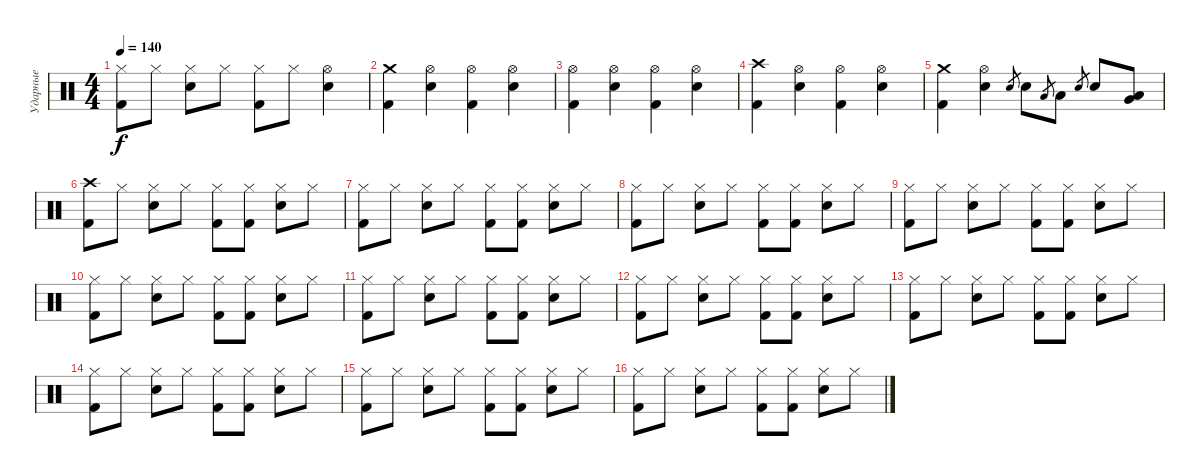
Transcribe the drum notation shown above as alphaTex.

\track ("Ударные" "Ударные") {instrument percussion}
\staff {score}
\articulation defaults
\ts (4 4)
\tempo 140
\clef neutral
\ks c
("Kick (hit) 2" "Hi-Hat (closed)").8{dy f} "Hi-Hat (closed)".8 ("Snare (hit) 2" "Hi-Hat (closed)").8 "Hi-Hat (closed)".8 ("Kick (hit) 2" "Hi-Hat (closed)").8 "Hi-Hat (closed)".8 ("Snare (hit) 2" "Hi-Hat (open)").4 |
("Kick (hit) 2" "Crash medium (hit)").4 ("Snare (hit) 2" "Hi-Hat (open)").4 ("Kick (hit) 2" "Hi-Hat (open)").4 ("Snare (hit) 2" "Hi-Hat (open)").4 |
("Kick (hit) 2" "Hi-Hat (open)").4 ("Snare (hit) 2" "Hi-Hat (open)").4 ("Kick (hit) 2" "Hi-Hat (open)").4 ("Snare (hit) 2" "Hi-Hat (open)").4 |
("Kick (hit) 2" "Crash high (hit)").4 ("Snare (hit) 2" "Hi-Hat (open)").4 ("Kick (hit) 2" "Hi-Hat (open)").4 ("Snare (hit) 2" "Hi-Hat (open)").4 |
("Kick (hit) 2" "Crash medium (hit)").4 ("Snare (hit) 2" "Hi-Hat (open)").4 "Snare (hit) 2".8{gr} "Snare (hit) 2".8 "Low Tom (hit)".8{gr} "Low Tom (hit)".8 "Snare (hit) 2".8{gr} "Snare (hit) 2".8 ("Low Tom (hit)" "Very Low Tom (hit)").8 |
("Kick (hit) 2" "Crash high (hit)").8 "Hi-Hat (closed)".8 ("Snare (hit) 2" "Hi-Hat (closed)").8 "Hi-Hat (closed)".8 ("Kick (hit) 2" "Hi-Hat (closed)").8 ("Kick (hit) 2" "Hi-Hat (closed)").8 ("Snare (hit) 2" "Hi-Hat (closed)").8 "Hi-Hat (closed)".8 |
("Kick (hit) 2" "Hi-Hat (closed)").8 "Hi-Hat (closed)".8 ("Snare (hit) 2" "Hi-Hat (closed)").8 "Hi-Hat (closed)".8 ("Kick (hit) 2" "Hi-Hat (closed)").8 ("Kick (hit) 2" "Hi-Hat (closed)").8 ("Snare (hit) 2" "Hi-Hat (closed)").8 "Hi-Hat (closed)".8 |
("Kick (hit) 2" "Hi-Hat (closed)").8 "Hi-Hat (closed)".8 ("Snare (hit) 2" "Hi-Hat (closed)").8 "Hi-Hat (closed)".8 ("Kick (hit) 2" "Hi-Hat (closed)").8 ("Kick (hit) 2" "Hi-Hat (closed)").8 ("Snare (hit) 2" "Hi-Hat (closed)").8 "Hi-Hat (closed)".8 |
("Kick (hit) 2" "Hi-Hat (closed)").8 "Hi-Hat (closed)".8 ("Snare (hit) 2" "Hi-Hat (closed)").8 "Hi-Hat (closed)".8 ("Kick (hit) 2" "Hi-Hat (closed)").8 ("Kick (hit) 2" "Hi-Hat (closed)").8 ("Snare (hit) 2" "Hi-Hat (closed)").8 "Hi-Hat (closed)".8 |
("Kick (hit) 2" "Hi-Hat (closed)").8 "Hi-Hat (closed)".8 ("Snare (hit) 2" "Hi-Hat (closed)").8 "Hi-Hat (closed)".8 ("Kick (hit) 2" "Hi-Hat (closed)").8 ("Kick (hit) 2" "Hi-Hat (closed)").8 ("Snare (hit) 2" "Hi-Hat (closed)").8 "Hi-Hat (closed)".8 |
("Kick (hit) 2" "Hi-Hat (closed)").8 "Hi-Hat (closed)".8 ("Snare (hit) 2" "Hi-Hat (closed)").8 "Hi-Hat (closed)".8 ("Kick (hit) 2" "Hi-Hat (closed)").8 ("Kick (hit) 2" "Hi-Hat (closed)").8 ("Snare (hit) 2" "Hi-Hat (closed)").8 "Hi-Hat (closed)".8 |
("Kick (hit) 2" "Hi-Hat (closed)").8 "Hi-Hat (closed)".8 ("Snare (hit) 2" "Hi-Hat (closed)").8 "Hi-Hat (closed)".8 ("Kick (hit) 2" "Hi-Hat (closed)").8 ("Kick (hit) 2" "Hi-Hat (closed)").8 ("Snare (hit) 2" "Hi-Hat (closed)").8 "Hi-Hat (closed)".8 |
("Kick (hit) 2" "Hi-Hat (closed)").8 "Hi-Hat (closed)".8 ("Snare (hit) 2" "Hi-Hat (closed)").8 "Hi-Hat (closed)".8 ("Kick (hit) 2" "Hi-Hat (closed)").8 ("Kick (hit) 2" "Hi-Hat (closed)").8 ("Snare (hit) 2" "Hi-Hat (closed)").8 "Hi-Hat (closed)".8 |
("Kick (hit) 2" "Hi-Hat (closed)").8 "Hi-Hat (closed)".8 ("Snare (hit) 2" "Hi-Hat (closed)").8 "Hi-Hat (closed)".8 ("Kick (hit) 2" "Hi-Hat (closed)").8 ("Kick (hit) 2" "Hi-Hat (closed)").8 ("Snare (hit) 2" "Hi-Hat (closed)").8 "Hi-Hat (closed)".8 |
("Kick (hit) 2" "Hi-Hat (closed)").8 "Hi-Hat (closed)".8 ("Snare (hit) 2" "Hi-Hat (closed)").8 "Hi-Hat (closed)".8 ("Kick (hit) 2" "Hi-Hat (closed)").8 ("Kick (hit) 2" "Hi-Hat (closed)").8 ("Snare (hit) 2" "Hi-Hat (closed)").8 "Hi-Hat (closed)".8 |
("Kick (hit) 2" "Hi-Hat (closed)").8 "Hi-Hat (closed)".8 ("Snare (hit) 2" "Hi-Hat (closed)").8 "Hi-Hat (closed)".8 ("Kick (hit) 2" "Hi-Hat (closed)").8 ("Kick (hit) 2" "Hi-Hat (closed)").8 ("Snare (hit) 2" "Hi-Hat (closed)").8 "Hi-Hat (closed)".8
